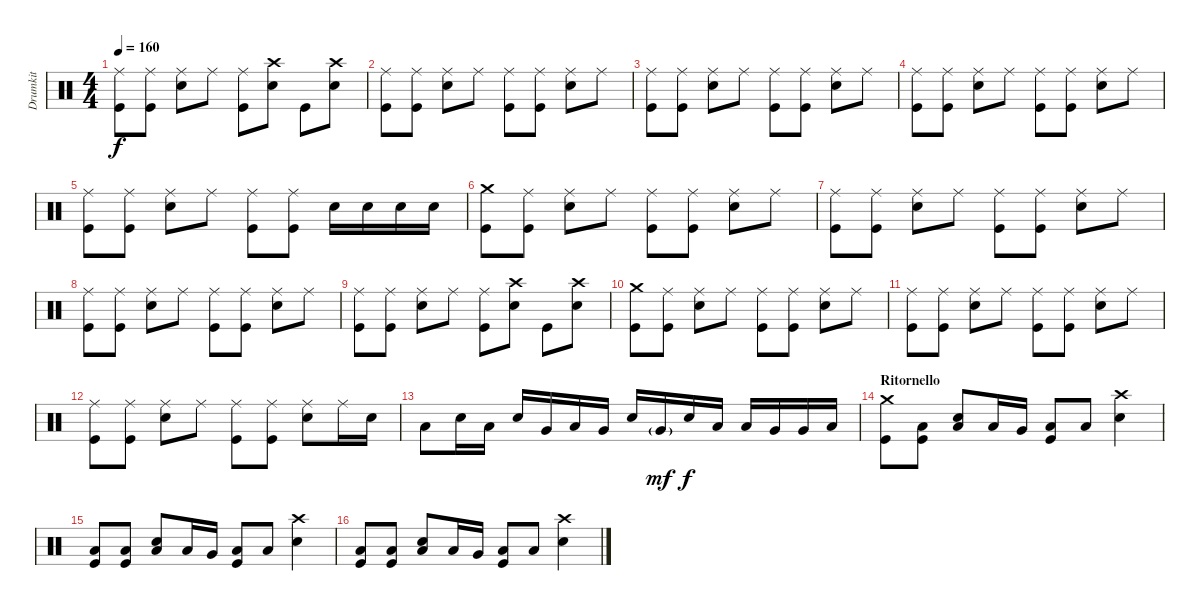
\track ("Drumkit" "Drumkit") {instrument percussion}
\staff {score}
\articulation defaults
\ts (4 4)
\tempo 160
\clef neutral
\ks c
("Ride (middle)" "Kick (hit)").8{dy f} ("Ride (middle)" "Kick (hit)").8 ("Ride (middle)" "Snare (hit) 2").8 "Ride (middle)".8 ("Ride (middle)" "Kick (hit)").8 ("Crash high (hit)" "Snare (hit) 2").8 "Kick (hit)".8 ("Crash high (hit)" "Snare (hit) 2").8 |
("Ride (middle)" "Kick (hit)").8 ("Ride (middle)" "Kick (hit)").8 ("Ride (middle)" "Snare (hit) 2").8 "Ride (middle)".8 ("Ride (middle)" "Kick (hit)").8 ("Ride (middle)" "Kick (hit)").8 ("Ride (middle)" "Snare (hit) 2").8 "Ride (middle)".8 |
("Ride (middle)" "Kick (hit)").8 ("Ride (middle)" "Kick (hit)").8 ("Ride (middle)" "Snare (hit) 2").8 "Ride (middle)".8 ("Ride (middle)" "Kick (hit)").8 ("Ride (middle)" "Kick (hit)").8 ("Ride (middle)" "Snare (hit) 2").8 "Ride (middle)".8 |
("Ride (middle)" "Kick (hit)").8 ("Ride (middle)" "Kick (hit)").8 ("Ride (middle)" "Snare (hit) 2").8 "Ride (middle)".8 ("Ride (middle)" "Kick (hit)").8 ("Ride (middle)" "Kick (hit)").8 ("Ride (middle)" "Snare (hit) 2").8 "Ride (middle)".8 |
("Ride (middle)" "Kick (hit)").8 ("Ride (middle)" "Kick (hit)").8 ("Ride (middle)" "Snare (hit) 2").8 "Ride (middle)".8 ("Ride (middle)" "Kick (hit)").8 ("Ride (middle)" "Kick (hit)").8 "Snare (hit) 2".16 "Snare (hit) 2".16 "Snare (hit) 2".16 "Snare (hit) 2".16 |
("Crash medium (hit)" "Kick (hit)").8 ("Ride (middle)" "Kick (hit)").8 ("Ride (middle)" "Snare (hit) 2").8 "Ride (middle)".8 ("Ride (middle)" "Kick (hit)").8 ("Ride (middle)" "Kick (hit)").8 ("Ride (middle)" "Snare (hit) 2").8 "Ride (middle)".8 |
("Ride (middle)" "Kick (hit)").8 ("Ride (middle)" "Kick (hit)").8 ("Ride (middle)" "Snare (hit) 2").8 "Ride (middle)".8 ("Ride (middle)" "Kick (hit)").8 ("Ride (middle)" "Kick (hit)").8 ("Ride (middle)" "Snare (hit) 2").8 "Ride (middle)".8 |
("Ride (middle)" "Kick (hit)").8 ("Ride (middle)" "Kick (hit)").8 ("Ride (middle)" "Snare (hit) 2").8 "Ride (middle)".8 ("Ride (middle)" "Kick (hit)").8 ("Ride (middle)" "Kick (hit)").8 ("Ride (middle)" "Snare (hit) 2").8 "Ride (middle)".8 |
("Ride (middle)" "Kick (hit)").8 ("Ride (middle)" "Kick (hit)").8 ("Ride (middle)" "Snare (hit) 2").8 "Ride (middle)".8 ("Ride (middle)" "Kick (hit)").8 ("Crash high (hit)" "Snare (hit) 2").8 "Kick (hit)".8 ("Crash high (hit)" "Snare (hit) 2").8 |
("Crash medium (hit)" "Kick (hit)").8 ("Ride (middle)" "Kick (hit)").8 ("Ride (middle)" "Snare (hit) 2").8 "Ride (middle)".8 ("Ride (middle)" "Kick (hit)").8 ("Ride (middle)" "Kick (hit)").8 ("Ride (middle)" "Snare (hit) 2").8 "Ride (middle)".8 |
("Ride (middle)" "Kick (hit)").8 ("Ride (middle)" "Kick (hit)").8 ("Ride (middle)" "Snare (hit) 2").8 "Ride (middle)".8 ("Ride (middle)" "Kick (hit)").8 ("Ride (middle)" "Kick (hit)").8 ("Ride (middle)" "Snare (hit) 2").8 "Ride (middle)".8 |
("Ride (middle)" "Kick (hit)").8 ("Ride (middle)" "Kick (hit)").8 ("Ride (middle)" "Snare (hit) 2").8 "Ride (middle)".8 ("Ride (middle)" "Kick (hit)").8 ("Ride (middle)" "Kick (hit)").8 ("Ride (middle)" "Snare (hit) 2").8 "Ride (middle)".16 "Snare (hit) 2".16 |
"Low Tom (hit)".8 "Snare (hit) 2".16 "Low Tom (hit)".16 "Snare (hit) 2".16 "Very Low Tom (hit)".16 "Low Tom (hit)".16 "Very Low Tom (hit)".16 "Snare (hit) 2".16 "Very Low Tom (hit)"{g}.16{dy mf} "Snare (hit) 2".16{dy f} "Low Tom (hit)".16 "Low Tom (hit)".16 "Very Low Tom (hit)".16 "Very Low Tom (hit)".16 "Low Floor Tom (hit)".16 |
\section ("" "Ritornello")
("Crash medium (hit)" "Kick (hit)").8 ("Low Floor Tom (hit)" "Kick (hit)").8 ("Low Floor Tom (hit)" "Snare (hit) 2").8 "Low Tom (hit)".16 "Very Low Tom (hit)".16 ("Low Floor Tom (hit)" "Kick (hit)").8 "Low Floor Tom (hit)".8 ("Crash high (hit)" "Snare (hit) 2").4 |
("Low Floor Tom (hit)" "Kick (hit)").8 ("Low Floor Tom (hit)" "Kick (hit)").8 ("Low Floor Tom (hit)" "Snare (hit) 2").8 "Low Tom (hit)".16 "Very Low Tom (hit)".16 ("Low Floor Tom (hit)" "Kick (hit)").8 "Low Floor Tom (hit)".8 ("Crash high (hit)" "Snare (hit) 2").4 |
("Low Floor Tom (hit)" "Kick (hit)").8 ("Low Floor Tom (hit)" "Kick (hit)").8 ("Low Floor Tom (hit)" "Snare (hit) 2").8 "Low Tom (hit)".16 "Very Low Tom (hit)".16 ("Low Floor Tom (hit)" "Kick (hit)").8 "Low Floor Tom (hit)".8 ("Crash high (hit)" "Snare (hit) 2").4
